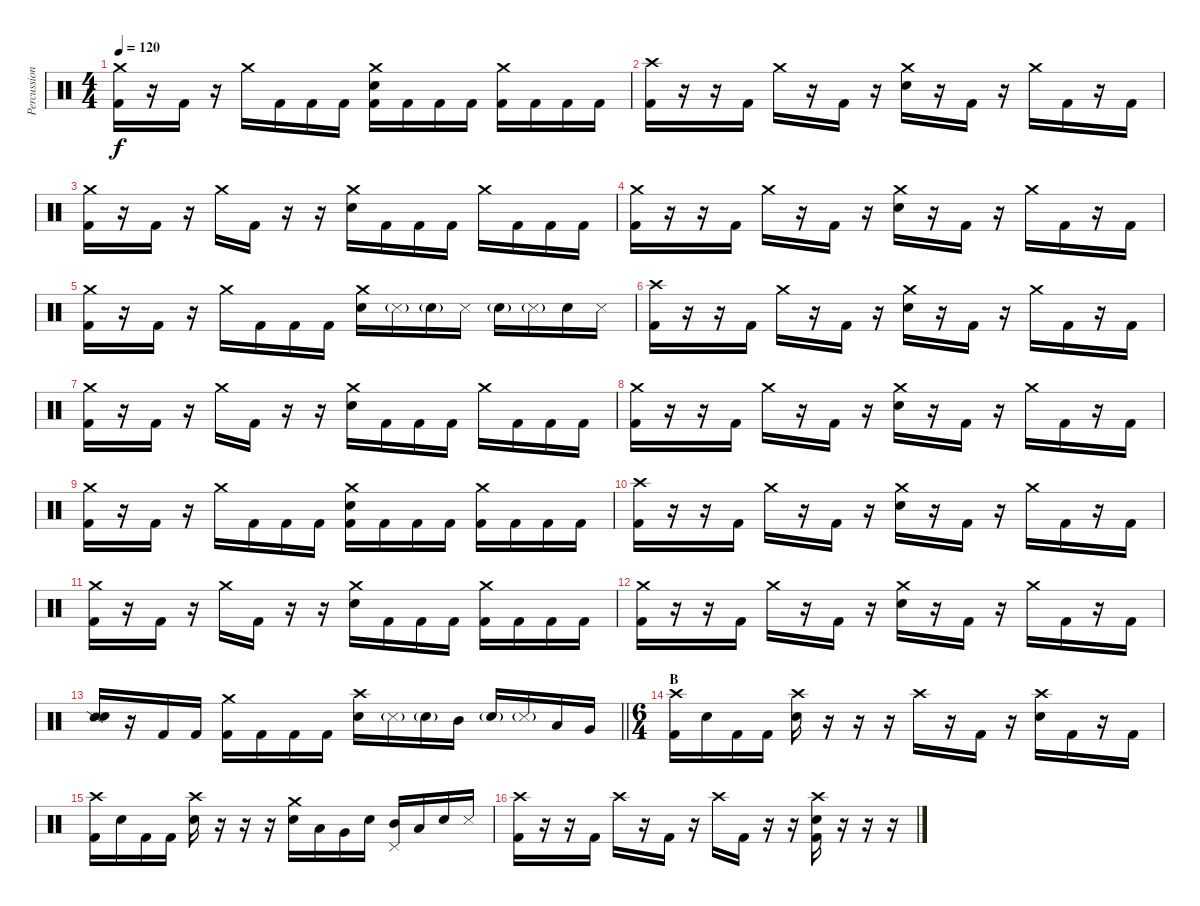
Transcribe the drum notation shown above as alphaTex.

\track ("Percussion" "Percussion") {instrument percussion}
\staff {score}
\articulation defaults
\ts (4 4)
\tempo 120
\clef neutral
\ks c
("Crash medium (hit)" "Kick (hit) 2").16{dy f} r.16 "Kick (hit) 2".16 r.16 "Crash medium (hit)".16 "Kick (hit) 2".16 "Kick (hit) 2".16 "Kick (hit) 2".16 ("Crash medium (hit)" "Snare (hit) 2" "Kick (hit) 2").16 "Kick (hit) 2".16 "Kick (hit) 2".16 "Kick (hit) 2".16 ("Crash medium (hit)" "Kick (hit) 2").16 "Kick (hit) 2".16 "Kick (hit) 2".16 "Kick (hit) 2".16 |
("Crash high (hit)" "Kick (hit) 2").16 r.16 r.16 "Kick (hit) 2".16 "Crash medium (hit)".16 r.16 "Kick (hit) 2".16 r.16 ("Crash medium (hit)" "Snare (hit) 2").16 r.16 "Kick (hit) 2".16 r.16 "Crash medium (hit)".16 "Kick (hit) 2".16 r.16 "Kick (hit) 2".16 |
("Crash medium (hit)" "Kick (hit) 2").16 r.16 "Kick (hit) 2".16 r.16 "Crash medium (hit)".16 "Kick (hit) 2".16 r.16 r.16 ("Crash medium (hit)" "Snare (hit) 2").16 "Kick (hit) 2".16 "Kick (hit) 2".16 "Kick (hit) 2".16 "Crash medium (hit)".16 "Kick (hit) 2".16 "Kick (hit) 2".16 "Kick (hit) 2".16 |
("Crash medium (hit)" "Kick (hit) 2").16 r.16 r.16 "Kick (hit) 2".16 "Crash medium (hit)".16 r.16 "Kick (hit) 2".16 r.16 ("Crash medium (hit)" "Snare (hit) 2").16 r.16 "Kick (hit) 2".16 r.16 "Crash medium (hit)".16 "Kick (hit) 2".16 r.16 "Kick (hit) 2".16 |
("Crash medium (hit)" "Kick (hit) 2").16 r.16 "Kick (hit) 2".16 r.16 "Crash medium (hit)".16 "Kick (hit) 2".16 "Kick (hit) 2".16 "Kick (hit) 2".16 ("Crash medium (hit)" "Snare (hit) 2").16 "Metronome (hit)"{g}.16 "Snare (hit) 2"{g}.16 "Metronome (hit)".16 "Snare (hit) 2"{g}.16 "Metronome (hit)"{g}.16 "Snare (hit) 2".16 "Metronome (hit)".16 |
("Crash high (hit)" "Kick (hit) 2").16 r.16 r.16 "Kick (hit) 2".16 "Crash medium (hit)".16 r.16 "Kick (hit) 2".16 r.16 ("Crash medium (hit)" "Snare (hit) 2").16 r.16 "Kick (hit) 2".16 r.16 "Crash medium (hit)".16 "Kick (hit) 2".16 r.16 "Kick (hit) 2".16 |
("Crash medium (hit)" "Kick (hit) 2").16 r.16 "Kick (hit) 2".16 r.16 "Crash medium (hit)".16 "Kick (hit) 2".16 r.16 r.16 ("Crash medium (hit)" "Snare (hit) 2").16 "Kick (hit) 2".16 "Kick (hit) 2".16 "Kick (hit) 2".16 "Crash medium (hit)".16 "Kick (hit) 2".16 "Kick (hit) 2".16 "Kick (hit) 2".16 |
("Crash medium (hit)" "Kick (hit) 2").16 r.16 r.16 "Kick (hit) 2".16 "Crash medium (hit)".16 r.16 "Kick (hit) 2".16 r.16 ("Crash medium (hit)" "Snare (hit) 2").16 r.16 "Kick (hit) 2".16 r.16 "Crash medium (hit)".16 "Kick (hit) 2".16 r.16 "Kick (hit) 2".16 |
("Crash medium (hit)" "Kick (hit) 2").16 r.16 "Kick (hit) 2".16 r.16 "Crash medium (hit)".16 "Kick (hit) 2".16 "Kick (hit) 2".16 "Kick (hit) 2".16 ("Crash medium (hit)" "Snare (hit) 2" "Kick (hit) 2").16 "Kick (hit) 2".16 "Kick (hit) 2".16 "Kick (hit) 2".16 ("Crash medium (hit)" "Kick (hit) 2").16 "Kick (hit) 2".16 "Kick (hit) 2".16 "Kick (hit) 2".16 |
("Crash high (hit)" "Kick (hit) 2").16 r.16 r.16 "Kick (hit) 2".16 "Crash medium (hit)".16 r.16 "Kick (hit) 2".16 r.16 ("Crash medium (hit)" "Snare (hit) 2").16 r.16 "Kick (hit) 2".16 r.16 "Crash medium (hit)".16 "Kick (hit) 2".16 r.16 "Kick (hit) 2".16 |
("Crash medium (hit)" "Kick (hit) 2").16 r.16 "Kick (hit) 2".16 r.16 "Crash medium (hit)".16 "Kick (hit) 2".16 r.16 r.16 ("Crash medium (hit)" "Snare (hit) 2").16 "Kick (hit) 2".16 "Kick (hit) 2".16 "Kick (hit) 2".16 ("Crash medium (hit)" "Kick (hit) 2").16 "Kick (hit) 2".16 "Kick (hit) 2".16 "Kick (hit) 2".16 |
("Crash medium (hit)" "Kick (hit) 2").16 r.16 r.16 "Kick (hit) 2".16 "Crash medium (hit)".16 r.16 "Kick (hit) 2".16 r.16 ("Crash medium (hit)" "Snare (hit) 2").16 r.16 "Kick (hit) 2".16 r.16 "Crash medium (hit)".16 "Kick (hit) 2".16 r.16 "Kick (hit) 2".16 |
\barLineRight lightlight
("Snare (side stick) 2" "Snare (hit) 2").16 r.16 "Kick (hit) 2".16 "Kick (hit) 2".16 ("Crash medium (hit)" "Kick (hit) 2").16 "Kick (hit) 2".16 "Kick (hit) 2".16 "Kick (hit) 2".16 ("Crash high (hit)" "Snare (hit) 2").16 "Metronome (hit)"{g}.16 "Snare (hit) 2"{g}.16 "Mid Tom (hit)".16 "Snare (hit) 2"{g}.16 "Metronome (hit)"{g}.16 "Low Tom (hit)".16 "Very Low Tom (hit)".16 |
\ts (6 4)
\section ("" "B")
("Crash high (hit)" "Kick (hit) 2").16 "Snare (hit) 2".16 "Kick (hit) 2".16 "Kick (hit) 2".16 ("Crash high (hit)" "Snare (hit) 2").16 r.16 r.16 r.16 "Crash high (hit)".16 r.16 "Kick (hit) 2".16 r.16 ("Crash high (hit)" "Snare (hit) 2").16 "Kick (hit) 2".16 r.16 "Kick (hit) 2".16 |
("Crash high (hit)" "Kick (hit) 2").16 "Snare (hit) 2".16 "Kick (hit) 2".16 "Kick (hit) 2".16 ("Crash high (hit)" "Snare (hit) 2").16 r.16 r.16 r.16 ("Crash medium (hit)" "Snare (hit) 2").16 "Low Tom (hit)".16 "Very Low Tom (hit)".16 "Snare (hit) 2".16 ("Pedal Hi-Hat (hit)" "Mid Tom (hit)").16 "Low Tom (hit)".16 "Snare (hit) 2".16 "Metronome (hit)".16 |
("Crash high (hit)" "Kick (hit) 2").16 r.16 r.16 "Kick (hit) 2".16 "Crash high (hit)".16 r.16 "Kick (hit) 2".16 r.16 "Crash high (hit)".16 "Kick (hit) 2".16 r.16 r.16 ("Crash high (hit)" "Snare (hit) 2" "Kick (hit) 2").16 r.16 r.16 r.16
